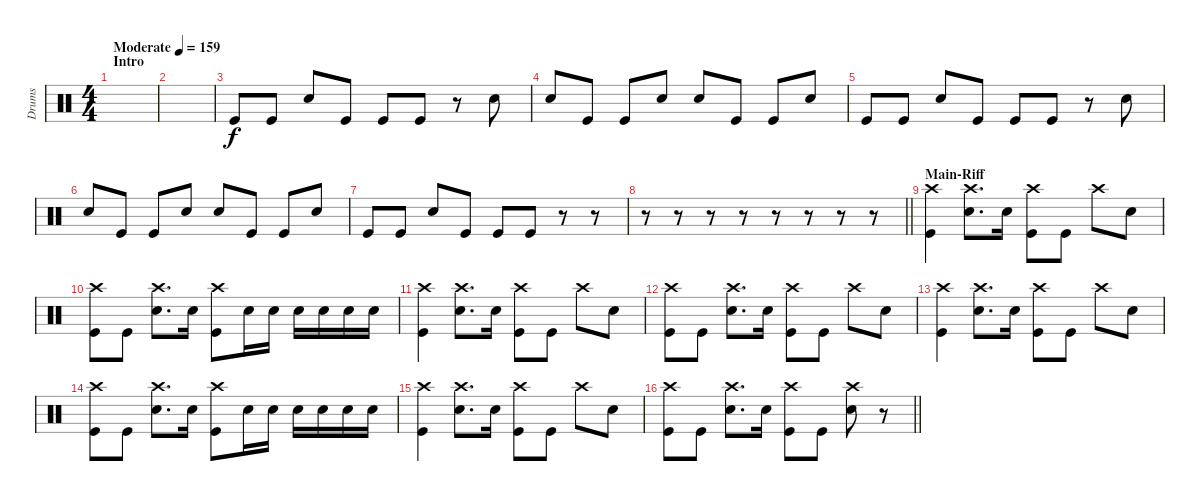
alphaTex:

\track ("Drums" "Drums") {instrument percussion}
\staff {score}
\articulation defaults
\ts (4 4)
\section ("" "Intro")
\tempo (159 "Moderate")
\clef neutral
\ks c
|
|
"Kick (hit)".8 "Kick (hit)".8 "Snare (hit) 2".8 "Kick (hit)".8 "Kick (hit)".8 "Kick (hit)".8 r.8 "Snare (hit) 2".8 |
"Snare (hit) 2".8 "Kick (hit)".8 "Kick (hit)".8 "Snare (hit) 2".8 "Snare (hit) 2".8 "Kick (hit)".8 "Kick (hit)".8 "Snare (hit) 2".8 |
"Kick (hit)".8 "Kick (hit)".8 "Snare (hit) 2".8 "Kick (hit)".8 "Kick (hit)".8 "Kick (hit)".8 r.8 "Snare (hit) 2".8 |
"Snare (hit) 2".8 "Kick (hit)".8 "Kick (hit)".8 "Snare (hit) 2".8 "Snare (hit) 2".8 "Kick (hit)".8 "Kick (hit)".8 "Snare (hit) 2".8 |
"Kick (hit)".8 "Kick (hit)".8 "Snare (hit) 2".8 "Kick (hit)".8 "Kick (hit)".8 "Kick (hit)".8 r.8 r.8 |
\barLineRight lightlight
r.8 r.8 r.8 r.8 r.8 r.8 r.8 r.8 |
\section ("" "Main-Riff")
("Crash high (hit)" "Kick (hit)").4 ("Crash high (hit)" "Snare (hit) 2").8{d} "Snare (hit) 2".16 ("Crash high (hit)" "Kick (hit)").8 "Kick (hit)".8 "Crash high (hit)".8 "Snare (hit) 2".8 |
("Crash high (hit)" "Kick (hit)").8 "Kick (hit)".8 ("Crash high (hit)" "Snare (hit) 2").8{d} "Snare (hit) 2".16 ("Crash high (hit)" "Kick (hit)").8 "Snare (hit) 2".16 "Snare (hit) 2".16 "Snare (hit) 2".16 "Snare (hit) 2".16 "Snare (hit) 2".16 "Snare (hit) 2".16 |
("Crash high (hit)" "Kick (hit)").4 ("Crash high (hit)" "Snare (hit) 2").8{d} "Snare (hit) 2".16 ("Crash high (hit)" "Kick (hit)").8 "Kick (hit)".8 "Crash high (hit)".8 "Snare (hit) 2".8 |
("Crash high (hit)" "Kick (hit)").8 "Kick (hit)".8 ("Crash high (hit)" "Snare (hit) 2").8{d} "Snare (hit) 2".16 ("Crash high (hit)" "Kick (hit)").8 "Kick (hit)".8 "Crash high (hit)".8 "Snare (hit) 2".8 |
("Crash high (hit)" "Kick (hit)").4 ("Crash high (hit)" "Snare (hit) 2").8{d} "Snare (hit) 2".16 ("Crash high (hit)" "Kick (hit)").8 "Kick (hit)".8 "Crash high (hit)".8 "Snare (hit) 2".8 |
("Crash high (hit)" "Kick (hit)").8 "Kick (hit)".8 ("Crash high (hit)" "Snare (hit) 2").8{d} "Snare (hit) 2".16 ("Crash high (hit)" "Kick (hit)").8 "Snare (hit) 2".16 "Snare (hit) 2".16 "Snare (hit) 2".16 "Snare (hit) 2".16 "Snare (hit) 2".16 "Snare (hit) 2".16 |
("Crash high (hit)" "Kick (hit)").4 ("Crash high (hit)" "Snare (hit) 2").8{d} "Snare (hit) 2".16 ("Crash high (hit)" "Kick (hit)").8 "Kick (hit)".8 "Crash high (hit)".8 "Snare (hit) 2".8 |
\barLineRight lightlight
("Crash high (hit)" "Kick (hit)").8 "Kick (hit)".8 ("Crash high (hit)" "Snare (hit) 2").8{d} "Snare (hit) 2".16 ("Crash high (hit)" "Kick (hit)").8 "Kick (hit)".8 ("Crash high (hit)" "Snare (hit) 2").8 r.8
